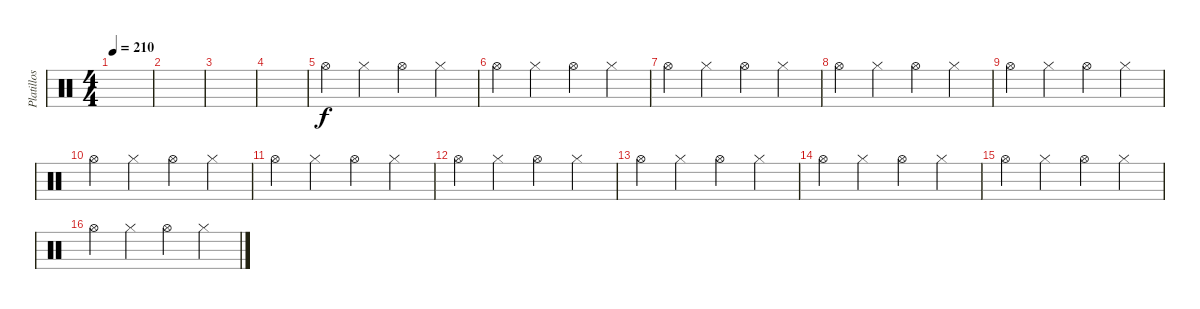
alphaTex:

\track ("Platillos (Leo)" "Platillos ") {instrument percussion}
\staff {score}
\articulation defaults
\ts (4 4)
\tempo 210
\clef neutral
\ks c
|
|
|
|
"Hi-Hat (open)".4 "Hi-Hat (closed)".4 "Hi-Hat (open)".4 "Hi-Hat (closed)".4 |
"Hi-Hat (open)".4 "Hi-Hat (closed)".4 "Hi-Hat (open)".4 "Hi-Hat (closed)".4 |
"Hi-Hat (open)".4 "Hi-Hat (closed)".4 "Hi-Hat (open)".4 "Hi-Hat (closed)".4 |
"Hi-Hat (open)".4 "Hi-Hat (closed)".4 "Hi-Hat (open)".4 "Hi-Hat (closed)".4 |
"Hi-Hat (open)".4 "Hi-Hat (closed)".4 "Hi-Hat (open)".4 "Hi-Hat (closed)".4 |
"Hi-Hat (open)".4 "Hi-Hat (closed)".4 "Hi-Hat (open)".4 "Hi-Hat (closed)".4 |
"Hi-Hat (open)".4 "Hi-Hat (closed)".4 "Hi-Hat (open)".4 "Hi-Hat (closed)".4 |
"Hi-Hat (open)".4 "Hi-Hat (closed)".4 "Hi-Hat (open)".4 "Hi-Hat (closed)".4 |
"Hi-Hat (open)".4 "Hi-Hat (closed)".4 "Hi-Hat (open)".4 "Hi-Hat (closed)".4 |
"Hi-Hat (open)".4 "Hi-Hat (closed)".4 "Hi-Hat (open)".4 "Hi-Hat (closed)".4 |
"Hi-Hat (open)".4 "Hi-Hat (closed)".4 "Hi-Hat (open)".4 "Hi-Hat (closed)".4 |
"Hi-Hat (open)".4 "Hi-Hat (closed)".4 "Hi-Hat (open)".4 "Hi-Hat (closed)".4
